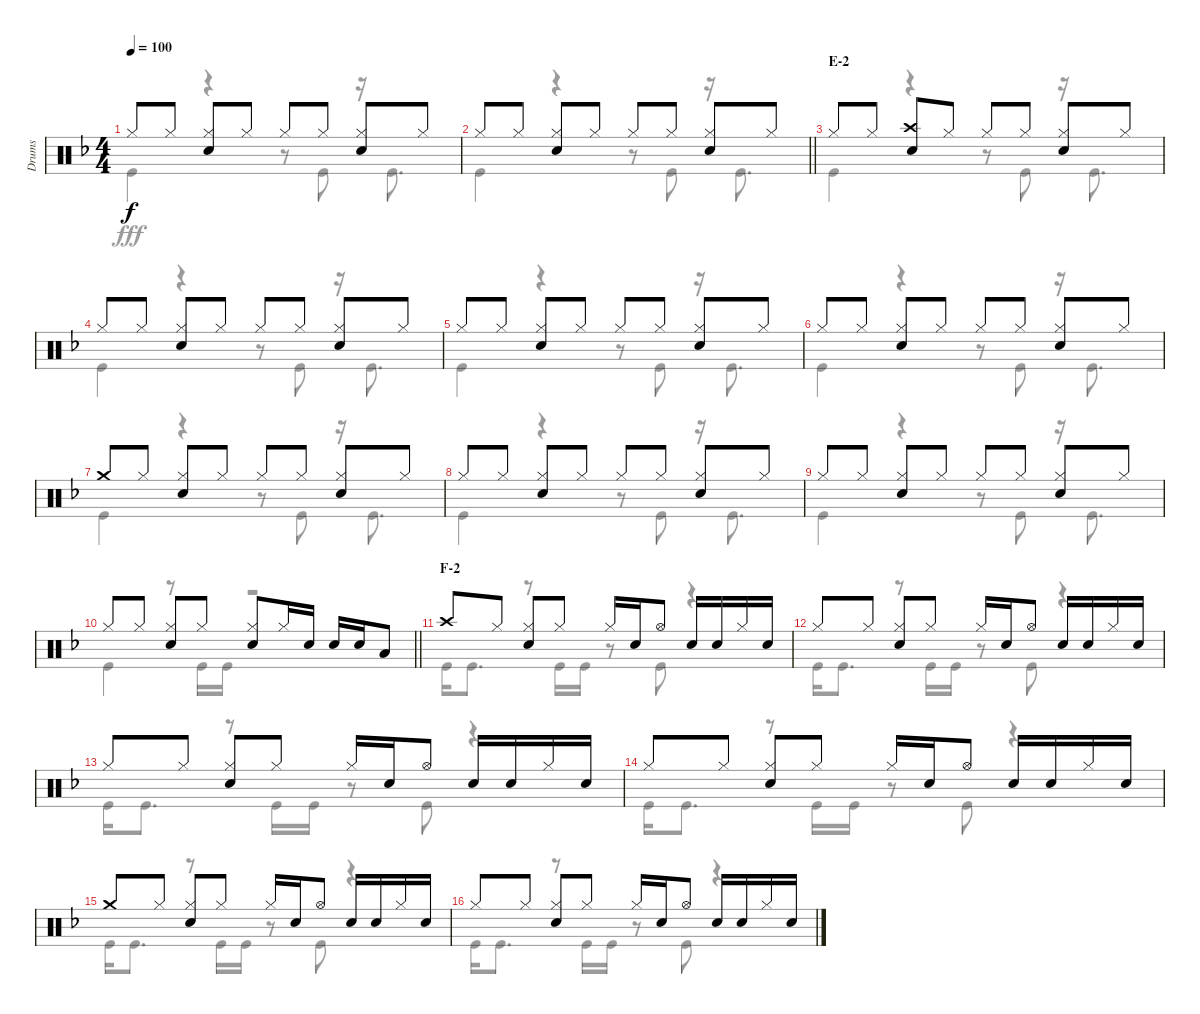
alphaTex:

\track ("Drums" "Drums") {instrument percussion}
\staff {score}
\articulation defaults
\voice
\ts (4 4)
\tempo 100
\clef neutral
\ks f "Hi-Hat (closed)".8{dy f} "Hi-Hat (closed)".8
("Hi-Hat (closed)" "Snare (hit) 2").8 "Hi-Hat (closed)".8 "Hi-Hat (closed)".8 "Hi-Hat (closed)".8 ("Hi-Hat (closed)" "Snare (hit) 2").8 "Hi-Hat (closed)".8 |
\barLineRight lightlight "Hi-Hat (closed)".8 "Hi-Hat (closed)".8
("Hi-Hat (closed)" "Snare (hit) 2").8 "Hi-Hat (closed)".8 "Hi-Hat (closed)".8 "Hi-Hat (closed)".8 ("Hi-Hat (closed)" "Snare (hit) 2").8 "Hi-Hat (closed)".8 |
\section ("" "E-2")
"Hi-Hat (closed)".8 "Hi-Hat (closed)".8 ("Crash high (hit)" "Snare (hit) 2").8 "Hi-Hat (closed)".8 "Hi-Hat (closed)".8 "Hi-Hat (closed)".8 ("Hi-Hat (closed)" "Snare (hit) 2").8 "Hi-Hat (closed)".8 |
"Hi-Hat (closed)".8 "Hi-Hat (closed)".8 ("Hi-Hat (closed)" "Snare (hit) 2").8 "Hi-Hat (closed)".8 "Hi-Hat (closed)".8 "Hi-Hat (closed)".8 ("Hi-Hat (closed)" "Snare (hit) 2").8 "Hi-Hat (closed)".8 |
"Hi-Hat (closed)".8 "Hi-Hat (closed)".8 ("Hi-Hat (closed)" "Snare (hit) 2").8 "Hi-Hat (closed)".8 "Hi-Hat (closed)".8 "Hi-Hat (closed)".8 ("Hi-Hat (closed)" "Snare (hit) 2").8 "Hi-Hat (closed)".8 |
"Hi-Hat (closed)".8 "Hi-Hat (closed)".8 ("Hi-Hat (closed)" "Snare (hit) 2").8 "Hi-Hat (closed)".8 "Hi-Hat (closed)".8 "Hi-Hat (closed)".8 ("Hi-Hat (closed)" "Snare (hit) 2").8 "Hi-Hat (closed)".8 |
"Crash medium (hit)".8 "Hi-Hat (closed)".8 ("Hi-Hat (closed)" "Snare (hit) 2").8 "Hi-Hat (closed)".8 "Hi-Hat (closed)".8 "Hi-Hat (closed)".8 ("Hi-Hat (closed)" "Snare (hit) 2").8 "Hi-Hat (closed)".8 |
"Hi-Hat (closed)".8 "Hi-Hat (closed)".8 ("Hi-Hat (closed)" "Snare (hit) 2").8 "Hi-Hat (closed)".8 "Hi-Hat (closed)".8 "Hi-Hat (closed)".8 ("Hi-Hat (closed)" "Snare (hit) 2").8 "Hi-Hat (closed)".8 |
"Hi-Hat (closed)".8 "Hi-Hat (closed)".8 ("Hi-Hat (closed)" "Snare (hit) 2").8 "Hi-Hat (closed)".8 "Hi-Hat (closed)".8 "Hi-Hat (closed)".8 ("Hi-Hat (closed)" "Snare (hit) 2").8 "Hi-Hat (closed)".8 |
\barLineRight lightlight "Hi-Hat (closed)".8 "Hi-Hat (closed)".8
("Hi-Hat (closed)" "Snare (hit) 2").8 "Hi-Hat (closed)".8 ("Hi-Hat (closed)" "Snare (hit) 2").8 "Hi-Hat (closed)".16 "Snare (hit) 2".16 "Snare (hit) 2".16 "Snare (hit) 2".16 "Low Tom (hit)".8 |
\section ("" "F-2")
"Crash high (hit)".8 "Hi-Hat (closed)".8 ("Hi-Hat (closed)" "Snare (hit) 2").8 "Hi-Hat (closed)".8 "Hi-Hat (closed)".16 "Snare (hit) 2".16 "Hi-Hat (open)".8 "Snare (hit) 2".16 "Snare (hit) 2".16 "Hi-Hat (closed)".16 "Snare (hit) 2".16 |
"Hi-Hat (closed)".8 "Hi-Hat (closed)".8 ("Hi-Hat (closed)" "Snare (hit) 2").8 "Hi-Hat (closed)".8 "Hi-Hat (closed)".16 "Snare (hit) 2".16 "Hi-Hat (open)".8 "Snare (hit) 2".16 "Snare (hit) 2".16 "Hi-Hat (closed)".16 "Snare (hit) 2".16 |
"Hi-Hat (closed)".8 "Hi-Hat (closed)".8 ("Hi-Hat (closed)" "Snare (hit) 2").8 "Hi-Hat (closed)".8 "Hi-Hat (closed)".16 "Snare (hit) 2".16 "Hi-Hat (open)".8 "Snare (hit) 2".16 "Snare (hit) 2".16 "Hi-Hat (closed)".16 "Snare (hit) 2".16 |
"Hi-Hat (closed)".8 "Hi-Hat (closed)".8 ("Hi-Hat (closed)" "Snare (hit) 2").8 "Hi-Hat (closed)".8 "Hi-Hat (closed)".16 "Snare (hit) 2".16 "Hi-Hat (open)".8 "Snare (hit) 2".16 "Snare (hit) 2".16 "Hi-Hat (closed)".16 "Snare (hit) 2".16 |
"Crash medium (hit)".8 "Hi-Hat (closed)".8 ("Hi-Hat (closed)" "Snare (hit) 2").8 "Hi-Hat (closed)".8 "Hi-Hat (closed)".16 "Snare (hit) 2".16 "Hi-Hat (open)".8 "Snare (hit) 2".16 "Snare (hit) 2".16 "Hi-Hat (closed)".16 "Snare (hit) 2".16 |
"Hi-Hat (closed)".8 "Hi-Hat (closed)".8 ("Hi-Hat (closed)" "Snare (hit) 2").8 "Hi-Hat (closed)".8 "Hi-Hat (closed)".16 "Snare (hit) 2".16 "Hi-Hat (open)".8 "Snare (hit) 2".16 "Snare (hit) 2".16 "Hi-Hat (closed)".16 "Snare (hit) 2".16
\voice
\clef neutral
\ottava regular
\simile none
\ks f "Kick (hit)".4{dy fff}
r.4 r.8 "Kick (hit)".8 r.16 "Kick (hit)".8{d} |
\barLineRight lightlight "Kick (hit)".4
r.4 r.8 "Kick (hit)".8 r.16 "Kick (hit)".8{d} |
"Kick (hit)".4 r.4 r.8 "Kick (hit)".8 r.16 "Kick (hit)".8{d} |
"Kick (hit)".4 r.4 r.8 "Kick (hit)".8 r.16 "Kick (hit)".8{d} |
"Kick (hit)".4 r.4 r.8 "Kick (hit)".8 r.16 "Kick (hit)".8{d} |
"Kick (hit)".4 r.4 r.8 "Kick (hit)".8 r.16 "Kick (hit)".8{d} |
"Kick (hit)".4 r.4 r.8 "Kick (hit)".8 r.16 "Kick (hit)".8{d} |
"Kick (hit)".4 r.4 r.8 "Kick (hit)".8 r.16 "Kick (hit)".8{d} |
"Kick (hit)".4 r.4 r.8 "Kick (hit)".8 r.16 "Kick (hit)".8{d} |
\barLineRight lightlight "Kick (hit)".4
r.8 "Kick (hit)".16 "Kick (hit)".16 r.2 |
"Kick (hit)".16 "Kick (hit)".8{d} r.8 "Kick (hit)".16 "Kick (hit)".16 r.8 "Kick (hit)".8 r.4 |
"Kick (hit)".16 "Kick (hit)".8{d} r.8 "Kick (hit)".16 "Kick (hit)".16 r.8 "Kick (hit)".8 r.4 |
"Kick (hit)".16 "Kick (hit)".8{d} r.8 "Kick (hit)".16 "Kick (hit)".16 r.8 "Kick (hit)".8 r.4 |
"Kick (hit)".16 "Kick (hit)".8{d} r.8 "Kick (hit)".16 "Kick (hit)".16 r.8 "Kick (hit)".8 r.4 |
"Kick (hit)".16 "Kick (hit)".8{d} r.8 "Kick (hit)".16 "Kick (hit)".16 r.8 "Kick (hit)".8 r.4 |
"Kick (hit)".16 "Kick (hit)".8{d} r.8 "Kick (hit)".16 "Kick (hit)".16 r.8 "Kick (hit)".8 r.4
